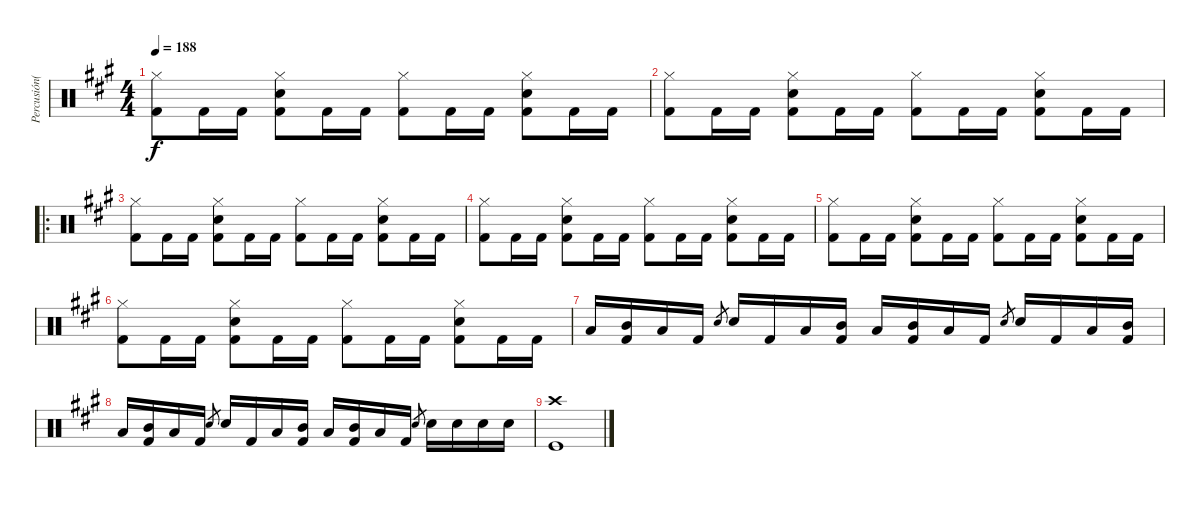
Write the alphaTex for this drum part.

\track ("Percusión(S.Drover)" "Percusión(") {instrument percussion}
\staff {score}
\articulation defaults
\ts (4 4)
\tempo 188
\clef neutral
\ks a
("Hi-Hat (closed)" "Kick (hit) 2").8{dy f} "Kick (hit) 2".16 "Kick (hit) 2".16 ("Hi-Hat (closed)" "Electric Snare (hit)" "Kick (hit) 2").8 "Kick (hit) 2".16 "Kick (hit) 2".16 ("Hi-Hat (closed)" "Kick (hit) 2").8 "Kick (hit) 2".16 "Kick (hit) 2".16 ("Hi-Hat (closed)" "Electric Snare (hit)" "Kick (hit) 2").8 "Kick (hit) 2".16 "Kick (hit) 2".16 |
("Hi-Hat (closed)" "Kick (hit) 2").8 "Kick (hit) 2".16 "Kick (hit) 2".16 ("Hi-Hat (closed)" "Electric Snare (hit)" "Kick (hit) 2").8 "Kick (hit) 2".16 "Kick (hit) 2".16 ("Hi-Hat (closed)" "Kick (hit) 2").8 "Kick (hit) 2".16 "Kick (hit) 2".16 ("Hi-Hat (closed)" "Electric Snare (hit)" "Kick (hit) 2").8 "Kick (hit) 2".16 "Kick (hit) 2".16 |
\ro
("Hi-Hat (closed)" "Kick (hit) 2").8 "Kick (hit) 2".16 "Kick (hit) 2".16 ("Hi-Hat (closed)" "Electric Snare (hit)" "Kick (hit) 2").8 "Kick (hit) 2".16 "Kick (hit) 2".16 ("Hi-Hat (closed)" "Kick (hit) 2").8 "Kick (hit) 2".16 "Kick (hit) 2".16 ("Hi-Hat (closed)" "Electric Snare (hit)" "Kick (hit) 2").8 "Kick (hit) 2".16 "Kick (hit) 2".16 |
("Hi-Hat (closed)" "Kick (hit) 2").8 "Kick (hit) 2".16 "Kick (hit) 2".16 ("Hi-Hat (closed)" "Electric Snare (hit)" "Kick (hit) 2").8 "Kick (hit) 2".16 "Kick (hit) 2".16 ("Hi-Hat (closed)" "Kick (hit) 2").8 "Kick (hit) 2".16 "Kick (hit) 2".16 ("Hi-Hat (closed)" "Electric Snare (hit)" "Kick (hit) 2").8 "Kick (hit) 2".16 "Kick (hit) 2".16 |
("Hi-Hat (closed)" "Kick (hit) 2").8 "Kick (hit) 2".16 "Kick (hit) 2".16 ("Hi-Hat (closed)" "Electric Snare (hit)" "Kick (hit) 2").8 "Kick (hit) 2".16 "Kick (hit) 2".16 ("Hi-Hat (closed)" "Kick (hit) 2").8 "Kick (hit) 2".16 "Kick (hit) 2".16 ("Hi-Hat (closed)" "Electric Snare (hit)" "Kick (hit) 2").8 "Kick (hit) 2".16 "Kick (hit) 2".16 |
("Hi-Hat (closed)" "Kick (hit) 2").8 "Kick (hit) 2".16 "Kick (hit) 2".16 ("Hi-Hat (closed)" "Electric Snare (hit)" "Kick (hit) 2").8 "Kick (hit) 2".16 "Kick (hit) 2".16 ("Hi-Hat (closed)" "Kick (hit) 2").8 "Kick (hit) 2".16 "Kick (hit) 2".16 ("Hi-Hat (closed)" "Electric Snare (hit)" "Kick (hit) 2").8 "Kick (hit) 2".16 "Kick (hit) 2".16 |
"Low Tom (hit)".16 ("Kick (hit) 2" "Mid Tom (hit)").16 "Low Tom (hit)".16 "Kick (hit) 2".16 "Snare (hit) 2".8{gr} "Snare (hit) 2".16 "Kick (hit) 2".16 "Low Tom (hit)".16 ("Kick (hit) 2" "Mid Tom (hit)").16 "Low Tom (hit)".16 ("Kick (hit) 2" "Mid Tom (hit)").16 "Low Tom (hit)".16 "Kick (hit) 2".16 "Snare (hit) 2".8{gr} "Snare (hit) 2".16 "Kick (hit) 2".16 "Low Tom (hit)".16 ("Kick (hit) 2" "Mid Tom (hit)").16 |
"Low Tom (hit)".16 ("Kick (hit) 2" "Mid Tom (hit)").16 "Low Tom (hit)".16 "Kick (hit) 2".16 "Snare (hit) 2".8{gr} "Snare (hit) 2".16 "Kick (hit) 2".16 "Low Tom (hit)".16 ("Kick (hit) 2" "Mid Tom (hit)").16 "Low Tom (hit)".16 ("Kick (hit) 2" "Mid Tom (hit)").16 "Low Tom (hit)".16 "Kick (hit) 2".16 "Snare (hit) 2".8{gr} "Snare (hit) 2".16 "Snare (hit) 2".16 "Snare (hit) 2".16 "Snare (hit) 2".16 |
("Crash high (hit)" "Kick (hit)").1
